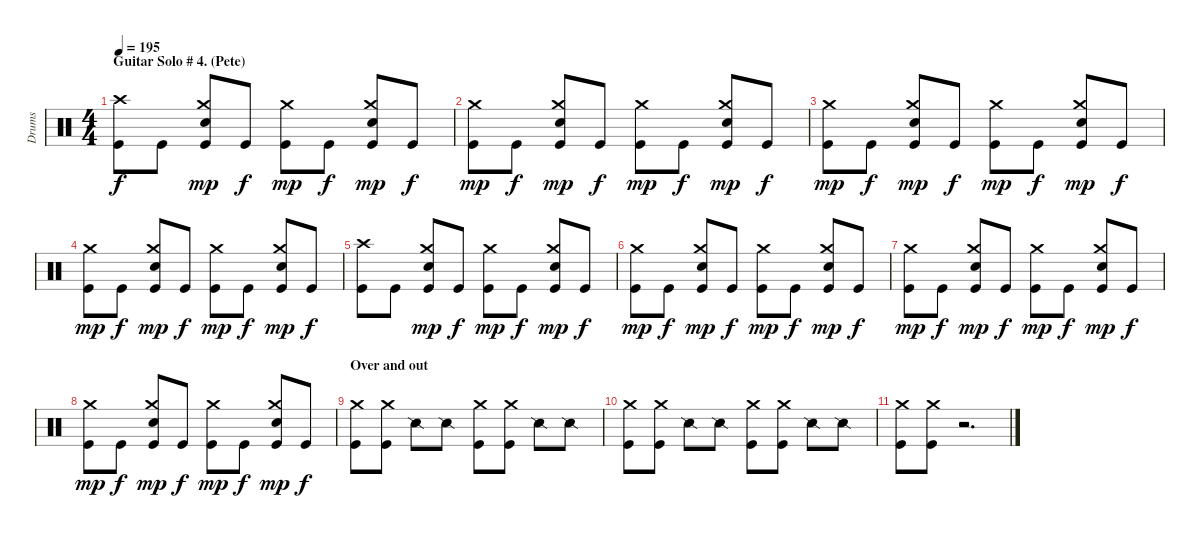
\track ("Drums" "Drums") {instrument percussion}
\staff {score}
\articulation defaults
\ts (4 4)
\section ("" "Guitar Solo # 4. (Pete)")
\tempo 195
\clef neutral
\ks c
("Crash high (hit)" "Kick (hit)").8{dy f} "Kick (hit)".8 ("Crash medium (hit)" "Electric Snare (hit)" "Kick (hit)").8{dy mp} "Kick (hit)".8{dy f} ("Crash medium (hit)" "Kick (hit)").8{dy mp} "Kick (hit)".8{dy f} ("Crash medium (hit)" "Electric Snare (hit)" "Kick (hit)").8{dy mp} "Kick (hit)".8{dy f} |
("Crash medium (hit)" "Kick (hit)").8{dy mp} "Kick (hit)".8{dy f} ("Crash medium (hit)" "Electric Snare (hit)" "Kick (hit)").8{dy mp} "Kick (hit)".8{dy f} ("Crash medium (hit)" "Kick (hit)").8{dy mp} "Kick (hit)".8{dy f} ("Crash medium (hit)" "Electric Snare (hit)" "Kick (hit)").8{dy mp} "Kick (hit)".8{dy f} |
("Crash medium (hit)" "Kick (hit)").8{dy mp} "Kick (hit)".8{dy f} ("Crash medium (hit)" "Electric Snare (hit)" "Kick (hit)").8{dy mp} "Kick (hit)".8{dy f} ("Crash medium (hit)" "Kick (hit)").8{dy mp} "Kick (hit)".8{dy f} ("Crash medium (hit)" "Electric Snare (hit)" "Kick (hit)").8{dy mp} "Kick (hit)".8{dy f} |
("Crash medium (hit)" "Kick (hit)").8{dy mp} "Kick (hit)".8{dy f} ("Crash medium (hit)" "Electric Snare (hit)" "Kick (hit)").8{dy mp} "Kick (hit)".8{dy f} ("Crash medium (hit)" "Kick (hit)").8{dy mp} "Kick (hit)".8{dy f} ("Crash medium (hit)" "Electric Snare (hit)" "Kick (hit)").8{dy mp} "Kick (hit)".8{dy f} |
("Crash high (hit)" "Kick (hit)").8 "Kick (hit)".8 ("Crash medium (hit)" "Electric Snare (hit)" "Kick (hit)").8{dy mp} "Kick (hit)".8{dy f} ("Crash medium (hit)" "Kick (hit)").8{dy mp} "Kick (hit)".8{dy f} ("Crash medium (hit)" "Electric Snare (hit)" "Kick (hit)").8{dy mp} "Kick (hit)".8{dy f} |
("Crash medium (hit)" "Kick (hit)").8{dy mp} "Kick (hit)".8{dy f} ("Crash medium (hit)" "Electric Snare (hit)" "Kick (hit)").8{dy mp} "Kick (hit)".8{dy f} ("Crash medium (hit)" "Kick (hit)").8{dy mp} "Kick (hit)".8{dy f} ("Crash medium (hit)" "Electric Snare (hit)" "Kick (hit)").8{dy mp} "Kick (hit)".8{dy f} |
("Crash medium (hit)" "Kick (hit)").8{dy mp} "Kick (hit)".8{dy f} ("Crash medium (hit)" "Electric Snare (hit)" "Kick (hit)").8{dy mp} "Kick (hit)".8{dy f} ("Crash medium (hit)" "Kick (hit)").8{dy mp} "Kick (hit)".8{dy f} ("Crash medium (hit)" "Electric Snare (hit)" "Kick (hit)").8{dy mp} "Kick (hit)".8{dy f} |
("Crash medium (hit)" "Kick (hit)").8{dy mp} "Kick (hit)".8{dy f} ("Crash medium (hit)" "Electric Snare (hit)" "Kick (hit)").8{dy mp} "Kick (hit)".8{dy f} ("Crash medium (hit)" "Kick (hit)").8{dy mp} "Kick (hit)".8{dy f} ("Crash medium (hit)" "Electric Snare (hit)" "Kick (hit)").8{dy mp} "Kick (hit)".8{dy f} |
\section ("" "Over and out")
("Crash medium (hit)" "Kick (hit)").8 ("Crash medium (hit)" "Kick (hit)").8 "Snare (side stick) 2"{x}.8 "Snare (side stick) 2"{x}.8 ("Crash medium (hit)" "Kick (hit)").8 ("Crash medium (hit)" "Kick (hit)").8 "Snare (side stick) 2"{x}.8 "Snare (side stick) 2"{x}.8 |
("Crash medium (hit)" "Kick (hit)").8 ("Crash medium (hit)" "Kick (hit)").8 "Snare (side stick) 2"{x}.8 "Snare (side stick) 2"{x}.8 ("Crash medium (hit)" "Kick (hit)").8 ("Crash medium (hit)" "Kick (hit)").8 "Snare (side stick) 2"{x}.8 "Snare (side stick) 2"{x}.8 |
("Crash medium (hit)" "Kick (hit)").8 ("Crash medium (hit)" "Kick (hit)").8 r.2{d}
